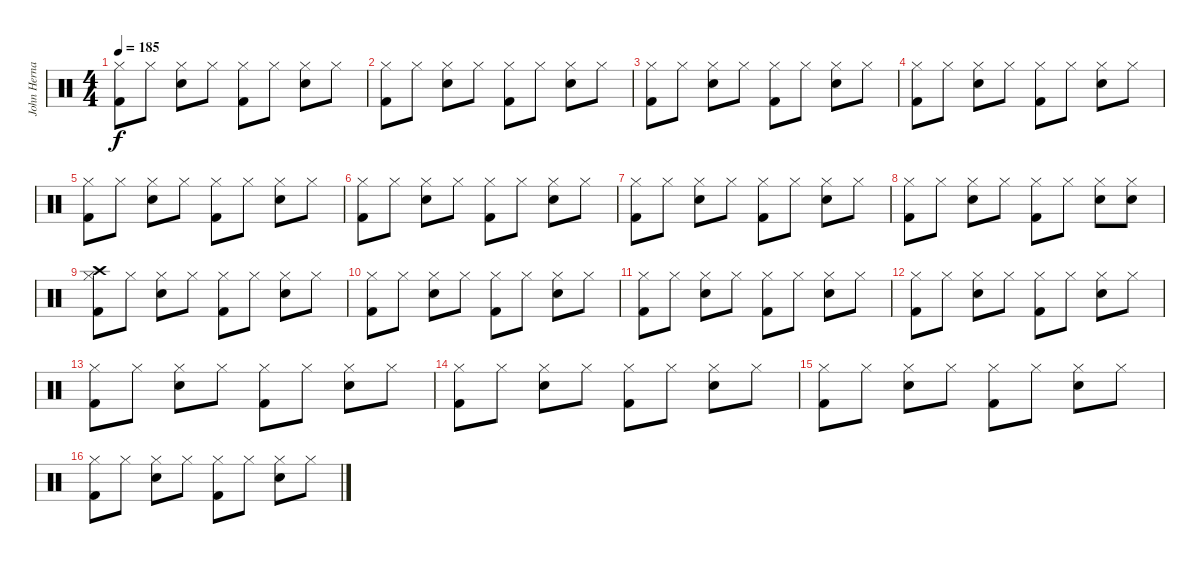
\track ("John Hernandez" "John Herna") {instrument percussion}
\staff {score}
\articulation defaults
\ts (4 4)
\tempo 185
\clef neutral
\ks c
("Hi-Hat (closed)" "Kick (hit) 2").8{dy f} "Hi-Hat (closed)".8 ("Hi-Hat (closed)" "Snare (hit) 2").8 "Hi-Hat (closed)".8 ("Hi-Hat (closed)" "Kick (hit) 2").8 "Hi-Hat (closed)".8 ("Hi-Hat (closed)" "Snare (hit) 2").8 "Hi-Hat (closed)".8 |
("Hi-Hat (closed)" "Kick (hit) 2").8 "Hi-Hat (closed)".8 ("Hi-Hat (closed)" "Snare (hit) 2").8 "Hi-Hat (closed)".8 ("Hi-Hat (closed)" "Kick (hit) 2").8 "Hi-Hat (closed)".8 ("Hi-Hat (closed)" "Snare (hit) 2").8 "Hi-Hat (closed)".8 |
("Hi-Hat (closed)" "Kick (hit) 2").8 "Hi-Hat (closed)".8 ("Hi-Hat (closed)" "Snare (hit) 2").8 "Hi-Hat (closed)".8 ("Hi-Hat (closed)" "Kick (hit) 2").8 "Hi-Hat (closed)".8 ("Hi-Hat (closed)" "Snare (hit) 2").8 "Hi-Hat (closed)".8 |
("Hi-Hat (closed)" "Kick (hit) 2").8 "Hi-Hat (closed)".8 ("Hi-Hat (closed)" "Snare (hit) 2").8 "Hi-Hat (closed)".8 ("Hi-Hat (closed)" "Kick (hit) 2").8 "Hi-Hat (closed)".8 ("Hi-Hat (closed)" "Snare (hit) 2").8 "Hi-Hat (closed)".8 |
("Hi-Hat (closed)" "Kick (hit) 2").8 "Hi-Hat (closed)".8 ("Hi-Hat (closed)" "Snare (hit) 2").8 "Hi-Hat (closed)".8 ("Hi-Hat (closed)" "Kick (hit) 2").8 "Hi-Hat (closed)".8 ("Hi-Hat (closed)" "Snare (hit) 2").8 "Hi-Hat (closed)".8 |
("Hi-Hat (closed)" "Kick (hit) 2").8 "Hi-Hat (closed)".8 ("Hi-Hat (closed)" "Snare (hit) 2").8 "Hi-Hat (closed)".8 ("Hi-Hat (closed)" "Kick (hit) 2").8 "Hi-Hat (closed)".8 ("Hi-Hat (closed)" "Snare (hit) 2").8 "Hi-Hat (closed)".8 |
("Hi-Hat (closed)" "Kick (hit) 2").8 "Hi-Hat (closed)".8 ("Hi-Hat (closed)" "Snare (hit) 2").8 "Hi-Hat (closed)".8 ("Hi-Hat (closed)" "Kick (hit) 2").8 "Hi-Hat (closed)".8 ("Hi-Hat (closed)" "Snare (hit) 2").8 "Hi-Hat (closed)".8 |
("Hi-Hat (closed)" "Kick (hit) 2").8 "Hi-Hat (closed)".8 ("Hi-Hat (closed)" "Snare (hit) 2").8 "Hi-Hat (closed)".8 ("Hi-Hat (closed)" "Kick (hit) 2").8 "Hi-Hat (closed)".8 ("Hi-Hat (closed)" "Snare (hit) 2").8 ("Hi-Hat (closed)" "Snare (hit) 2").8 |
("Crash high (hit)" "Hi-Hat (closed)" "Kick (hit) 2").8 "Hi-Hat (closed)".8 ("Hi-Hat (closed)" "Snare (hit) 2").8 "Hi-Hat (closed)".8 ("Hi-Hat (closed)" "Kick (hit) 2").8 "Hi-Hat (closed)".8 ("Hi-Hat (closed)" "Snare (hit) 2").8 "Hi-Hat (closed)".8 |
("Hi-Hat (closed)" "Kick (hit) 2").8 "Hi-Hat (closed)".8 ("Hi-Hat (closed)" "Snare (hit) 2").8 "Hi-Hat (closed)".8 ("Hi-Hat (closed)" "Kick (hit) 2").8 "Hi-Hat (closed)".8 ("Hi-Hat (closed)" "Snare (hit) 2").8 "Hi-Hat (closed)".8 |
("Hi-Hat (closed)" "Kick (hit) 2").8 "Hi-Hat (closed)".8 ("Hi-Hat (closed)" "Snare (hit) 2").8 "Hi-Hat (closed)".8 ("Hi-Hat (closed)" "Kick (hit) 2").8 "Hi-Hat (closed)".8 ("Hi-Hat (closed)" "Snare (hit) 2").8 "Hi-Hat (closed)".8 |
("Hi-Hat (closed)" "Kick (hit) 2").8 "Hi-Hat (closed)".8 ("Hi-Hat (closed)" "Snare (hit) 2").8 "Hi-Hat (closed)".8 ("Hi-Hat (closed)" "Kick (hit) 2").8 "Hi-Hat (closed)".8 ("Hi-Hat (closed)" "Snare (hit) 2").8 "Hi-Hat (closed)".8 |
("Hi-Hat (closed)" "Kick (hit) 2").8 "Hi-Hat (closed)".8 ("Hi-Hat (closed)" "Snare (hit) 2").8 "Hi-Hat (closed)".8 ("Hi-Hat (closed)" "Kick (hit) 2").8 "Hi-Hat (closed)".8 ("Hi-Hat (closed)" "Snare (hit) 2").8 "Hi-Hat (closed)".8 |
("Hi-Hat (closed)" "Kick (hit) 2").8 "Hi-Hat (closed)".8 ("Hi-Hat (closed)" "Snare (hit) 2").8 "Hi-Hat (closed)".8 ("Hi-Hat (closed)" "Kick (hit) 2").8 "Hi-Hat (closed)".8 ("Hi-Hat (closed)" "Snare (hit) 2").8 "Hi-Hat (closed)".8 |
("Hi-Hat (closed)" "Kick (hit) 2").8 "Hi-Hat (closed)".8 ("Hi-Hat (closed)" "Snare (hit) 2").8 "Hi-Hat (closed)".8 ("Hi-Hat (closed)" "Kick (hit) 2").8 "Hi-Hat (closed)".8 ("Hi-Hat (closed)" "Snare (hit) 2").8 "Hi-Hat (closed)".8 |
("Hi-Hat (closed)" "Kick (hit) 2").8 "Hi-Hat (closed)".8 ("Hi-Hat (closed)" "Snare (hit) 2").8 "Hi-Hat (closed)".8 ("Hi-Hat (closed)" "Kick (hit) 2").8 "Hi-Hat (closed)".8 ("Hi-Hat (closed)" "Snare (hit) 2").8 "Hi-Hat (closed)".8
